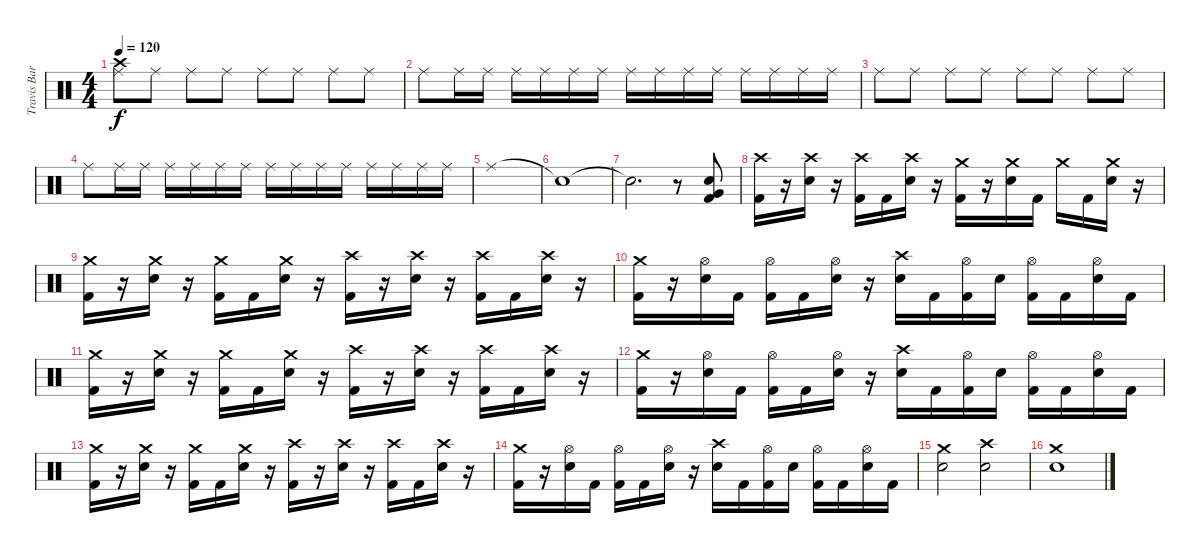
\track ("Travis Barker Drums" "Travis Bar") {instrument percussion}
\staff {score}
\articulation defaults
\ts (4 4)
\tempo 120
\clef neutral
\ks c
("Crash high (hit)" "Ride (middle)").8{dy f} "Ride (middle)".8 "Ride (middle)".8 "Ride (middle)".8 "Ride (middle)".8 "Ride (middle)".8 "Ride (middle)".8 "Ride (middle)".8 |
"Ride (middle)".8 "Ride (middle)".16 "Ride (middle)".16 "Ride (middle)".16 "Ride (middle)".16 "Ride (middle)".16 "Ride (middle)".16 "Ride (middle)".16 "Ride (middle)".16 "Ride (middle)".16 "Ride (middle)".16 "Ride (middle)".16 "Ride (middle)".16 "Ride (middle)".16 "Ride (middle)".16 |
"Ride (middle)".8 "Ride (middle)".8 "Ride (middle)".8 "Ride (middle)".8 "Ride (middle)".8 "Ride (middle)".8 "Ride (middle)".8 "Ride (middle)".8 |
"Ride (middle)".8 "Ride (middle)".16 "Ride (middle)".16 "Ride (middle)".16 "Ride (middle)".16 "Ride (middle)".16 "Ride (middle)".16 "Ride (middle)".16 "Ride (middle)".16 "Ride (middle)".16 "Ride (middle)".16 "Ride (middle)".16 "Ride (middle)".16 "Ride (middle)".16 "Ride (middle)".16 |
"Ride (middle)".1 |
"Snare (hit)"{t}.1 |
"Snare (hit)"{t}.2{d} r.8 ("Very Low Tom (hit)" "Snare (hit) 2" "Kick (hit) 2").8 |
("Crash high (hit)" "Kick (hit) 2").16 r.16 ("Crash high (hit)" "Snare (hit) 2").16 r.16 ("Crash high (hit)" "Kick (hit) 2").16 "Kick (hit) 2".16 ("Crash high (hit)" "Snare (hit) 2").16 r.16 ("Crash medium (hit)" "Kick (hit) 2").16 r.16 ("Crash medium (hit)" "Snare (hit) 2").16 "Kick (hit) 2".16 "Crash medium (hit)".16 "Kick (hit) 2".16 ("Crash medium (hit)" "Snare (hit) 2").16 r.16 |
("Crash medium (hit)" "Kick (hit) 2").16 r.16 ("Crash medium (hit)" "Snare (hit) 2").16 r.16 ("Crash medium (hit)" "Kick (hit) 2").16 "Kick (hit) 2".16 ("Crash medium (hit)" "Snare (hit) 2").16 r.16 ("Crash high (hit)" "Kick (hit) 2").16 r.16 ("Crash high (hit)" "Snare (hit) 2").16 r.16 ("Crash high (hit)" "Kick (hit) 2").16 "Kick (hit) 2".16 ("Crash high (hit)" "Snare (hit) 2").16 r.16 |
("Crash medium (hit)" "Kick (hit) 2").16 r.16 ("Hi-Hat (open)" "Snare (hit) 2").16 "Kick (hit) 2".16 ("Hi-Hat (open)" "Kick (hit) 2").16 "Kick (hit) 2".16 ("Hi-Hat (open)" "Snare (hit) 2").16 r.16 ("Crash high (hit)" "Snare (hit) 2").16 "Kick (hit) 2".16 ("Hi-Hat (open)" "Kick (hit) 2").16 "Snare (hit) 2".16 ("Hi-Hat (open)" "Kick (hit) 2").16 "Kick (hit) 2".16 ("Hi-Hat (open)" "Snare (hit) 2").16 "Kick (hit) 2".16 |
("Crash medium (hit)" "Kick (hit) 2").16 r.16 ("Crash medium (hit)" "Snare (hit) 2").16 r.16 ("Crash medium (hit)" "Kick (hit) 2").16 "Kick (hit) 2".16 ("Crash medium (hit)" "Snare (hit) 2").16 r.16 ("Crash high (hit)" "Kick (hit) 2").16 r.16 ("Crash high (hit)" "Snare (hit) 2").16 r.16 ("Crash high (hit)" "Kick (hit) 2").16 "Kick (hit) 2".16 ("Crash high (hit)" "Snare (hit) 2").16 r.16 |
("Crash medium (hit)" "Kick (hit) 2").16 r.16 ("Hi-Hat (open)" "Snare (hit) 2").16 "Kick (hit) 2".16 ("Hi-Hat (open)" "Kick (hit) 2").16 "Kick (hit) 2".16 ("Hi-Hat (open)" "Snare (hit) 2").16 r.16 ("Crash high (hit)" "Snare (hit) 2").16 "Kick (hit) 2".16 ("Hi-Hat (open)" "Kick (hit) 2").16 "Snare (hit) 2".16 ("Hi-Hat (open)" "Kick (hit) 2").16 "Kick (hit) 2".16 ("Hi-Hat (open)" "Snare (hit) 2").16 "Kick (hit) 2".16 |
("Crash medium (hit)" "Kick (hit) 2").16 r.16 ("Crash medium (hit)" "Snare (hit) 2").16 r.16 ("Crash medium (hit)" "Kick (hit) 2").16 "Kick (hit) 2".16 ("Crash medium (hit)" "Snare (hit) 2").16 r.16 ("Crash high (hit)" "Kick (hit) 2").16 r.16 ("Crash high (hit)" "Snare (hit) 2").16 r.16 ("Crash high (hit)" "Kick (hit) 2").16 "Kick (hit) 2".16 ("Crash high (hit)" "Snare (hit) 2").16 r.16 |
("Crash medium (hit)" "Kick (hit) 2").16 r.16 ("Hi-Hat (open)" "Snare (hit) 2").16 "Kick (hit) 2".16 ("Hi-Hat (open)" "Kick (hit) 2").16 "Kick (hit) 2".16 ("Hi-Hat (open)" "Snare (hit) 2").16 r.16 ("Crash high (hit)" "Snare (hit) 2").16 "Kick (hit) 2".16 ("Hi-Hat (open)" "Kick (hit) 2").16 "Snare (hit) 2".16 ("Hi-Hat (open)" "Kick (hit) 2").16 "Kick (hit) 2".16 ("Hi-Hat (open)" "Snare (hit) 2").16 "Kick (hit) 2".16 |
("Crash medium (hit)" "Snare (hit) 2").2 ("Crash high (hit)" "Snare (hit) 2").2 |
("Crash medium (hit)" "Snare (hit) 2").1
